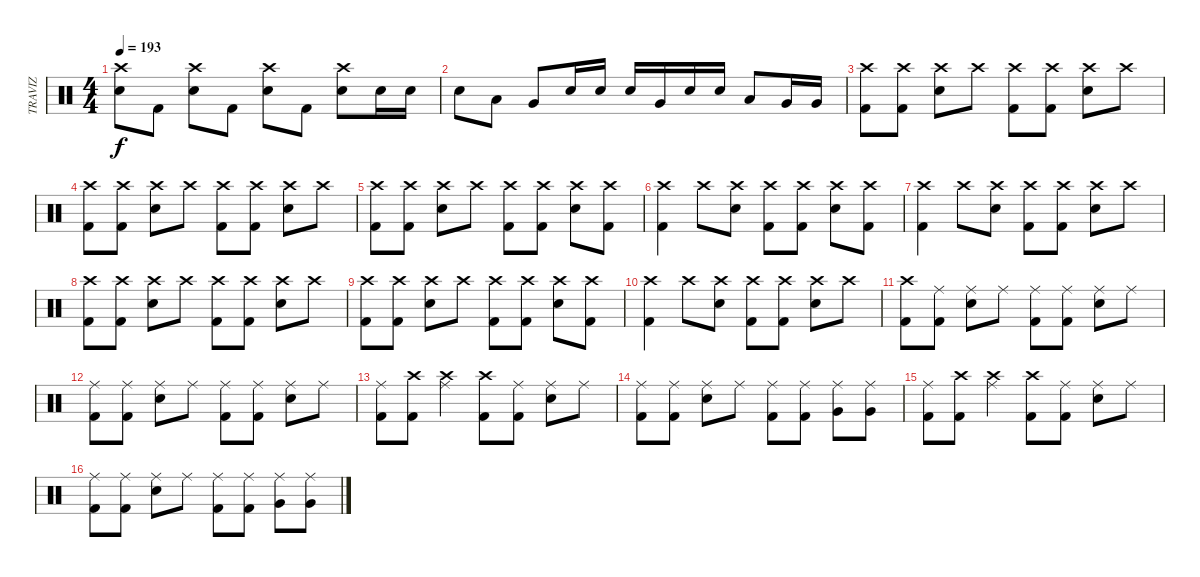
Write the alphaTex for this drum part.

\track ("TRAVIZ" "TRAVIZ") {instrument percussion}
\staff {score}
\articulation defaults
\ts (4 4)
\tempo 193
\clef neutral
\ks c
("Crash high (hit)" "Snare (hit) 2").8{dy f} "Kick (hit) 2".8 ("Crash high (hit)" "Snare (hit) 2").8 "Kick (hit) 2".8 ("Crash high (hit)" "Snare (hit) 2").8 "Kick (hit) 2".8 ("Crash high (hit)" "Snare (hit) 2").8 "Snare (hit) 2".16 "Snare (hit) 2".16 |
"Snare (hit) 2".8 "Low Tom (hit)".8 "Very Low Tom (hit)".8 "Snare (hit) 2".16 "Snare (hit) 2".16 "Snare (hit) 2".16 "Very Low Tom (hit)".16 "Snare (hit) 2".16 "Snare (hit) 2".16 "Low Tom (hit)".8 "Very Low Tom (hit)".16 "Very Low Tom (hit)".16 |
("Crash high (hit)" "Kick (hit) 2").8 ("Crash high (hit)" "Kick (hit) 2").8 ("Crash high (hit)" "Snare (hit) 2").8 "Crash high (hit)".8 ("Crash high (hit)" "Kick (hit) 2").8 ("Crash high (hit)" "Kick (hit) 2").8 ("Crash high (hit)" "Snare (hit) 2").8 "Crash high (hit)".8 |
("Crash high (hit)" "Kick (hit) 2").8 ("Crash high (hit)" "Kick (hit) 2").8 ("Crash high (hit)" "Snare (hit) 2").8 "Crash high (hit)".8 ("Crash high (hit)" "Kick (hit) 2").8 ("Crash high (hit)" "Kick (hit) 2").8 ("Crash high (hit)" "Snare (hit) 2").8 "Crash high (hit)".8 |
("Crash high (hit)" "Kick (hit) 2").8 ("Crash high (hit)" "Kick (hit) 2").8 ("Crash high (hit)" "Snare (hit) 2").8 "Crash high (hit)".8 ("Crash high (hit)" "Kick (hit) 2").8 ("Crash high (hit)" "Kick (hit) 2").8 ("Crash high (hit)" "Snare (hit) 2").8 ("Crash high (hit)" "Kick (hit) 2").8 |
("Crash high (hit)" "Kick (hit) 2").4 "Crash high (hit)".8 ("Crash high (hit)" "Snare (hit) 2").8 ("Crash high (hit)" "Kick (hit) 2").8 ("Crash high (hit)" "Kick (hit) 2").8 ("Crash high (hit)" "Snare (hit) 2").8 ("Crash high (hit)" "Kick (hit) 2").8 |
("Crash high (hit)" "Kick (hit) 2").4 "Crash high (hit)".8 ("Crash high (hit)" "Snare (hit) 2").8 ("Crash high (hit)" "Kick (hit) 2").8 ("Crash high (hit)" "Kick (hit) 2").8 ("Crash high (hit)" "Snare (hit) 2").8 "Crash high (hit)".8 |
("Crash high (hit)" "Kick (hit) 2").8 ("Crash high (hit)" "Kick (hit) 2").8 ("Crash high (hit)" "Snare (hit) 2").8 "Crash high (hit)".8 ("Crash high (hit)" "Kick (hit) 2").8 ("Crash high (hit)" "Kick (hit) 2").8 ("Crash high (hit)" "Snare (hit) 2").8 "Crash high (hit)".8 |
("Crash high (hit)" "Kick (hit) 2").8 ("Crash high (hit)" "Kick (hit) 2").8 ("Crash high (hit)" "Snare (hit) 2").8 "Crash high (hit)".8 ("Crash high (hit)" "Kick (hit) 2").8 ("Crash high (hit)" "Kick (hit) 2").8 ("Crash high (hit)" "Snare (hit) 2").8 ("Crash high (hit)" "Kick (hit) 2").8 |
("Crash high (hit)" "Kick (hit) 2").4 "Crash high (hit)".8 ("Crash high (hit)" "Snare (hit) 2").8 ("Crash high (hit)" "Kick (hit) 2").8 ("Crash high (hit)" "Kick (hit) 2").8 ("Crash high (hit)" "Snare (hit) 2").8 "Crash high (hit)".8 |
("Crash high (hit)" "Kick (hit) 2").8 ("Ride (middle)" "Kick (hit) 2").8 ("Ride (middle)" "Snare (hit) 2").8 "Ride (middle)".8 ("Ride (middle)" "Kick (hit) 2").8 ("Ride (middle)" "Kick (hit) 2").8 ("Ride (middle)" "Snare (hit) 2").8 "Ride (middle)".8 |
("Ride (middle)" "Kick (hit) 2").8 ("Ride (middle)" "Kick (hit) 2").8 ("Ride (middle)" "Snare (hit) 2").8 "Ride (middle)".8 ("Ride (middle)" "Kick (hit) 2").8 ("Ride (middle)" "Kick (hit) 2").8 ("Ride (middle)" "Snare (hit) 2").8 "Ride (middle)".8 |
("Ride (middle)" "Kick (hit) 2").8 ("Crash high (hit)" "Kick (hit) 2").8 ("Crash high (hit)" "Ride (middle)").4 ("Crash high (hit)" "Kick (hit) 2").8 ("Ride (middle)" "Kick (hit) 2").8 ("Ride (middle)" "Snare (hit) 2").8 "Ride (middle)".8 |
("Ride (middle)" "Kick (hit) 2").8 ("Ride (middle)" "Kick (hit) 2").8 ("Ride (middle)" "Snare (hit) 2").8 "Ride (middle)".8 ("Ride (middle)" "Kick (hit) 2").8 ("Ride (middle)" "Kick (hit) 2").8 ("Ride (middle)" "Very Low Tom (hit)").8 ("Ride (middle)" "Very Low Tom (hit)").8 |
("Ride (middle)" "Kick (hit) 2").8 ("Crash high (hit)" "Kick (hit) 2").8 ("Crash high (hit)" "Ride (middle)").4 ("Crash high (hit)" "Kick (hit) 2").8 ("Ride (middle)" "Kick (hit) 2").8 ("Ride (middle)" "Snare (hit) 2").8 "Ride (middle)".8 |
("Ride (middle)" "Kick (hit) 2").8 ("Ride (middle)" "Kick (hit) 2").8 ("Ride (middle)" "Snare (hit) 2").8 "Ride (middle)".8 ("Ride (middle)" "Kick (hit) 2").8 ("Ride (middle)" "Kick (hit) 2").8 ("Ride (middle)" "Very Low Tom (hit)").8 ("Ride (middle)" "Very Low Tom (hit)").8
